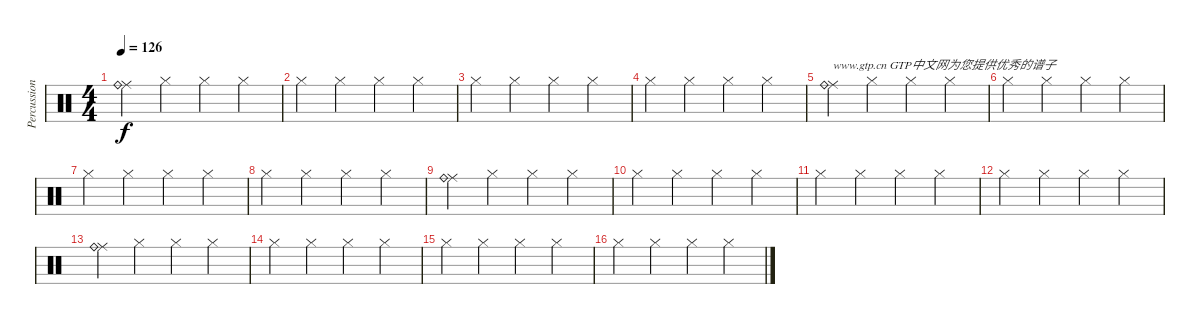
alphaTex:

\track ("Percussion" "Percussion") {instrument percussion}
\staff {score}
\articulation defaults
\ts (4 4)
\tempo 126
\clef neutral
\ks c
("Ride (middle)" "Ride (bell)").4{dy f} "Hi-Hat (closed)".4 "Hi-Hat (closed)".4 "Hi-Hat (closed)".4 |
"Hi-Hat (closed)".4 "Hi-Hat (closed)".4 "Hi-Hat (closed)".4 "Hi-Hat (closed)".4 |
"Hi-Hat (closed)".4 "Hi-Hat (closed)".4 "Hi-Hat (closed)".4 "Hi-Hat (closed)".4 |
"Hi-Hat (closed)".4 "Hi-Hat (closed)".4 "Hi-Hat (closed)".4 "Hi-Hat (closed)".4 |
("Ride (middle)" "Ride (bell)").4{txt "www.gtp.cn GTP中文网为您提供优秀的谱子"} "Hi-Hat (closed)".4 "Hi-Hat (closed)".4 "Hi-Hat (closed)".4 |
"Hi-Hat (closed)".4 "Hi-Hat (closed)".4 "Hi-Hat (closed)".4 "Hi-Hat (closed)".4 |
"Hi-Hat (closed)".4 "Hi-Hat (closed)".4 "Hi-Hat (closed)".4 "Hi-Hat (closed)".4 |
"Hi-Hat (closed)".4 "Hi-Hat (closed)".4 "Hi-Hat (closed)".4 "Hi-Hat (closed)".4 |
("Ride (middle)" "Ride (bell)").4 "Hi-Hat (closed)".4 "Hi-Hat (closed)".4 "Hi-Hat (closed)".4 |
"Hi-Hat (closed)".4 "Hi-Hat (closed)".4 "Hi-Hat (closed)".4 "Hi-Hat (closed)".4 |
"Hi-Hat (closed)".4 "Hi-Hat (closed)".4 "Hi-Hat (closed)".4 "Hi-Hat (closed)".4 |
"Hi-Hat (closed)".4 "Hi-Hat (closed)".4 "Hi-Hat (closed)".4 "Hi-Hat (closed)".4 |
("Ride (middle)" "Ride (bell)").4 "Hi-Hat (closed)".4 "Hi-Hat (closed)".4 "Hi-Hat (closed)".4 |
"Hi-Hat (closed)".4 "Hi-Hat (closed)".4 "Hi-Hat (closed)".4 "Hi-Hat (closed)".4 |
"Hi-Hat (closed)".4 "Hi-Hat (closed)".4 "Hi-Hat (closed)".4 "Hi-Hat (closed)".4 |
"Hi-Hat (closed)".4 "Hi-Hat (closed)".4 "Hi-Hat (closed)".4 "Hi-Hat (closed)".4
